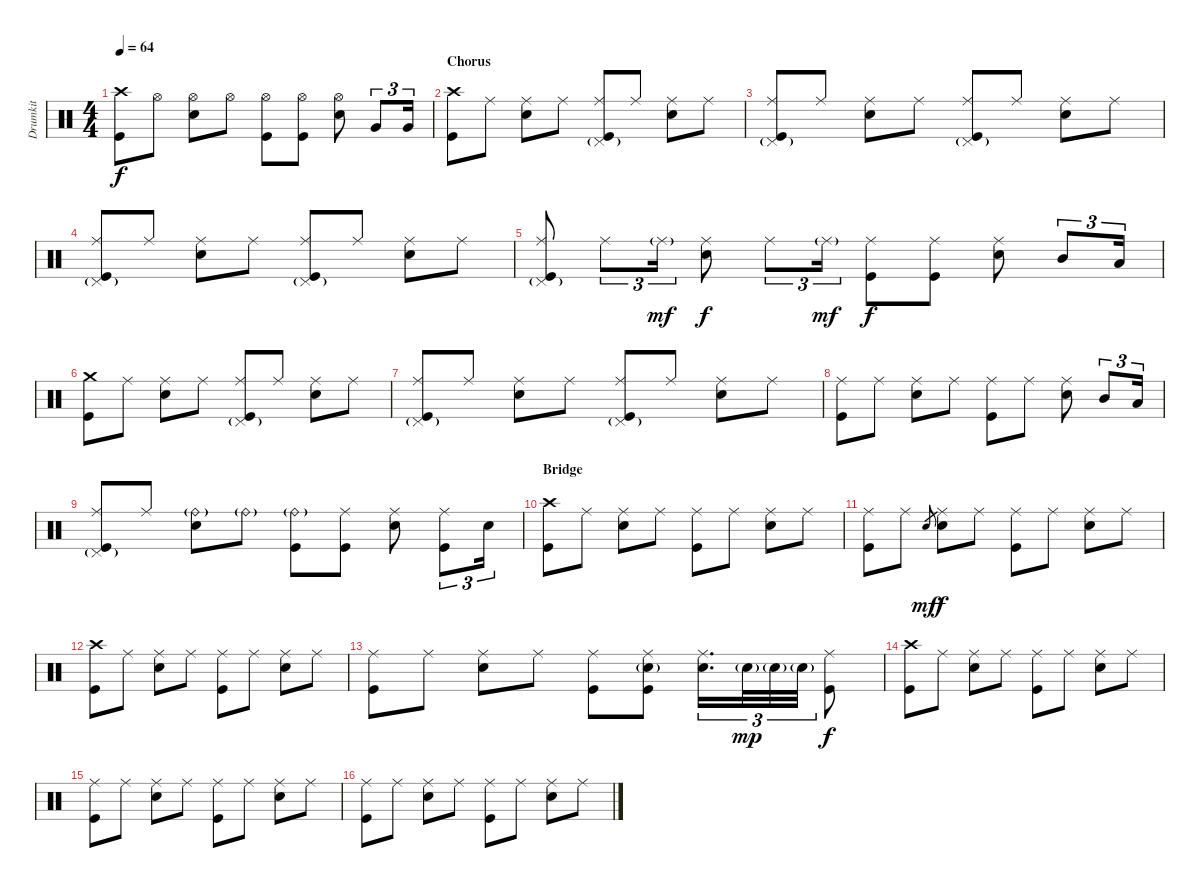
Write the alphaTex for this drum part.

\track ("Drumkit" "Drumkit") {instrument percussion}
\staff {score}
\articulation defaults
\ts (4 4)
\tempo 64
\clef neutral
\ks c
("Crash high (hit)" "Kick (hit)").8{dy f} "Hi-Hat (open)".8 ("Hi-Hat (open)" "Snare (hit) 2").8 "Hi-Hat (open)".8 ("Hi-Hat (open)" "Kick (hit)").8 ("Hi-Hat (open)" "Kick (hit)").8 ("Hi-Hat (open)" "Snare (hit) 2").8 "Very Low Tom (hit)".8{tu (3 2)} "Very Low Tom (hit)".16{tu (3 2)} |
\section ("" "Chorus")
("Crash high (hit)" "Kick (hit)").8 "Ride (middle)".8 ("Ride (middle)" "Snare (hit) 2").8 "Ride (middle)".8 ("Ride (middle)" "Pedal Hi-Hat (hit)"{g} "Kick (hit)").8 "Ride (middle)".8 ("Ride (middle)" "Snare (hit) 2").8 "Ride (middle)".8 |
("Ride (middle)" "Pedal Hi-Hat (hit)"{g} "Kick (hit)").8 "Ride (middle)".8 ("Ride (middle)" "Snare (hit) 2").8 "Ride (middle)".8 ("Ride (middle)" "Pedal Hi-Hat (hit)"{g} "Kick (hit)").8 "Ride (middle)".8 ("Ride (middle)" "Snare (hit) 2").8 "Ride (middle)".8 |
("Ride (middle)" "Pedal Hi-Hat (hit)"{g} "Kick (hit)").8 "Ride (middle)".8 ("Ride (middle)" "Snare (hit) 2").8 "Ride (middle)".8 ("Ride (middle)" "Pedal Hi-Hat (hit)"{g} "Kick (hit)").8 "Ride (middle)".8 ("Ride (middle)" "Snare (hit) 2").8 "Ride (middle)".8 |
("Ride (middle)" "Pedal Hi-Hat (hit)"{g} "Kick (hit)").8 "Ride (middle)".8{tu (3 2)} "Ride (middle)"{g}.16{tu (3 2) dy mf} ("Ride (middle)" "Snare (hit) 2").8{dy f} "Ride (middle)".8{tu (3 2)} "Ride (middle)"{g}.16{tu (3 2) dy mf} ("Ride (middle)" "Kick (hit)").8{dy f} ("Ride (middle)" "Kick (hit)").8 ("Ride (middle)" "Snare (hit) 2").8 "Mid Tom (hit)".8{tu (3 2)} "Low Tom (hit)".16{tu (3 2)} |
("Crash medium (hit)" "Kick (hit)").8 "Ride (middle)".8 ("Ride (middle)" "Snare (hit) 2").8 "Ride (middle)".8 ("Ride (middle)" "Pedal Hi-Hat (hit)"{g} "Kick (hit)").8 "Ride (middle)".8 ("Ride (middle)" "Snare (hit) 2").8 "Ride (middle)".8 |
("Ride (middle)" "Pedal Hi-Hat (hit)"{g} "Kick (hit)").8 "Ride (middle)".8 ("Ride (middle)" "Snare (hit) 2").8 "Ride (middle)".8 ("Ride (middle)" "Pedal Hi-Hat (hit)"{g} "Kick (hit)").8 "Ride (middle)".8 ("Ride (middle)" "Snare (hit) 2").8 "Ride (middle)".8 |
("Ride (middle)" "Kick (hit)").8 "Ride (middle)".8 ("Ride (middle)" "Snare (hit) 2").8 "Ride (middle)".8 ("Ride (middle)" "Kick (hit)").8 "Ride (middle)".8 ("Ride (middle)" "Snare (hit) 2").8 "Mid Tom (hit)".8{tu (3 2)} "Low Tom (hit)".16{tu (3 2)} |
("Ride (middle)" "Pedal Hi-Hat (hit)"{g} "Kick (hit)").8 "Ride (middle)".8 ("Ride (bell)"{g} "Snare (hit) 2").8 "Ride (bell)"{g}.8 ("Ride (bell)"{g} "Kick (hit)").8 ("Ride (middle)" "Kick (hit)").8 ("Ride (middle)" "Snare (hit) 2").8 ("Ride (middle)" "Kick (hit)").8{tu (3 2)} "Snare (hit) 2".16{tu (3 2)} |
\section ("" "Bridge")
("Crash high (hit)" "Kick (hit)").8 "Ride (middle)".8 ("Ride (middle)" "Snare (hit) 2").8 "Ride (middle)".8 ("Ride (middle)" "Kick (hit)").8 "Ride (middle)".8 ("Ride (middle)" "Snare (hit) 2").8 "Ride (middle)".8 |
("Ride (middle)" "Kick (hit)").8 "Ride (middle)".8 "Snare (hit)".8{gr dy mf} ("Ride (middle)" "Snare (hit) 2").8{dy f} "Ride (middle)".8 ("Ride (middle)" "Kick (hit)").8 "Ride (middle)".8 ("Ride (middle)" "Snare (hit) 2").8 "Ride (middle)".8 |
("Crash high (hit)" "Kick (hit)").8 "Ride (middle)".8 ("Ride (middle)" "Snare (hit) 2").8 "Ride (middle)".8 ("Ride (middle)" "Kick (hit)").8 "Ride (middle)".8 ("Ride (middle)" "Snare (hit) 2").8 "Ride (middle)".8 |
("Ride (middle)" "Kick (hit)").8 "Ride (middle)".8 ("Ride (middle)" "Snare (hit) 2").8 "Ride (middle)".8 ("Ride (middle)" "Kick (hit)").8 ("Ride (middle)" "Snare (hit) 2"{g} "Kick (hit)").8 ("Ride (middle)" "Snare (hit) 2").16{d tu (3 2)} "Snare (hit) 2"{g}.32{tu (3 2) dy mp} "Snare (hit) 2"{g}.32{tu (3 2)} "Snare (hit) 2"{g}.32{tu (3 2)} ("Ride (middle)" "Kick (hit)").8{dy f} |
("Crash high (hit)" "Kick (hit)").8 "Ride (middle)".8 ("Ride (middle)" "Snare (hit) 2").8 "Ride (middle)".8 ("Ride (middle)" "Kick (hit)").8 "Ride (middle)".8 ("Ride (middle)" "Snare (hit) 2").8 "Ride (middle)".8 |
("Ride (middle)" "Kick (hit)").8 "Ride (middle)".8 ("Ride (middle)" "Snare (hit) 2").8 "Ride (middle)".8 ("Ride (middle)" "Kick (hit)").8 "Ride (middle)".8 ("Ride (middle)" "Snare (hit) 2").8 "Ride (middle)".8 |
("Ride (middle)" "Kick (hit)").8 "Ride (middle)".8 ("Ride (middle)" "Snare (hit) 2").8 "Ride (middle)".8 ("Ride (middle)" "Kick (hit)").8 "Ride (middle)".8 ("Ride (middle)" "Snare (hit) 2").8 "Ride (middle)".8
